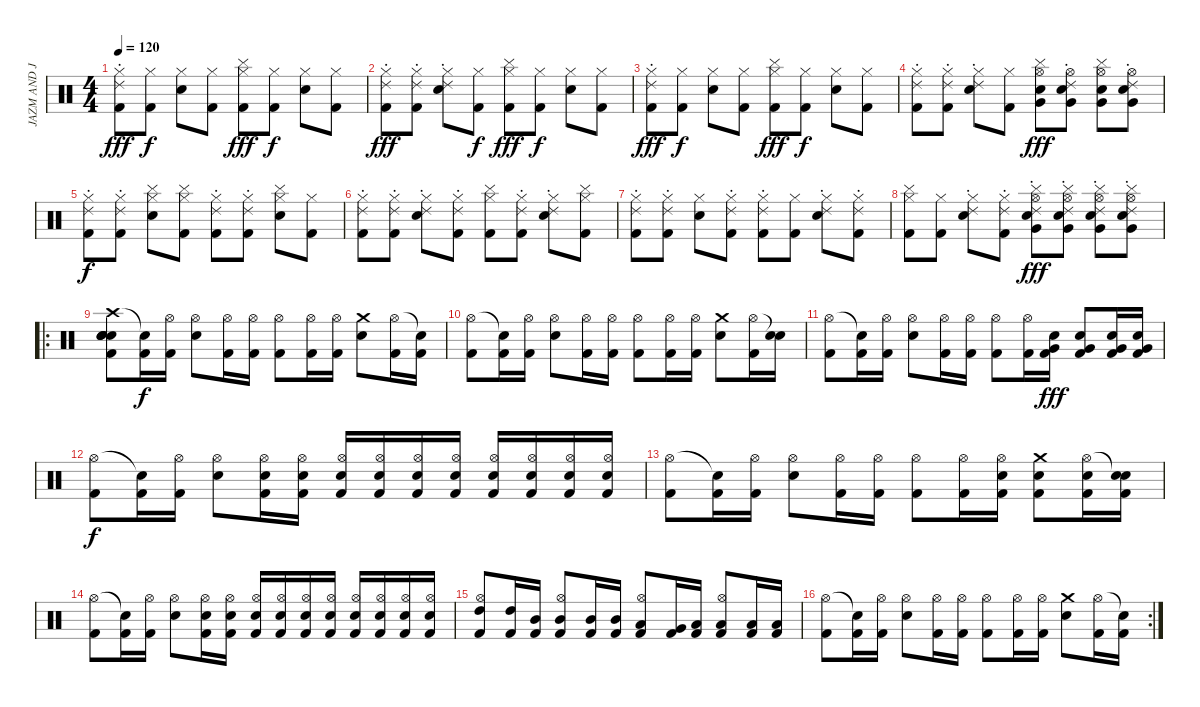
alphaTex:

\track ("JAZM AND JOKER" "JAZM AND J") {instrument percussion}
\staff {score}
\articulation defaults
\ts (4 4)
\tempo 120
\clef neutral
\ks c
("Hi-Hat (closed)" "Ride (choke) 2" "Kick (hit) 2").8{dy fff} ("Hi-Hat (closed)" "Kick (hit) 2").8{dy f} ("Hi-Hat (closed)" "Snare (hit) 2").8 ("Hi-Hat (closed)" "Kick (hit) 2").8 ("Hi-Hat (closed)" "Cymbal (hit)" "Kick (hit) 2").8{dy fff} ("Hi-Hat (closed)" "Kick (hit) 2").8{dy f} ("Hi-Hat (closed)" "Snare (hit) 2").8 ("Hi-Hat (closed)" "Kick (hit) 2").8 |
("Hi-Hat (closed)" "Ride (choke) 2" "Kick (hit) 2").8{dy fff} ("Hi-Hat (closed)" "Ride (choke) 2" "Kick (hit) 2").8 ("Hi-Hat (closed)" "Ride (choke) 2" "Snare (hit) 2").8 ("Hi-Hat (closed)" "Kick (hit) 2").8{dy f} ("Hi-Hat (closed)" "Cymbal (hit)" "Kick (hit) 2").8{dy fff} ("Hi-Hat (closed)" "Kick (hit) 2").8{dy f} ("Hi-Hat (closed)" "Snare (hit) 2").8 ("Hi-Hat (closed)" "Kick (hit) 2").8 |
("Hi-Hat (closed)" "Ride (choke) 2" "Kick (hit) 2").8{dy fff} ("Hi-Hat (closed)" "Kick (hit) 2").8{dy f} ("Hi-Hat (closed)" "Snare (hit) 2").8 ("Hi-Hat (closed)" "Kick (hit) 2").8 ("Hi-Hat (closed)" "Cymbal (hit)" "Kick (hit) 2").8{dy fff} ("Hi-Hat (closed)" "Kick (hit) 2").8{dy f} ("Hi-Hat (closed)" "Snare (hit) 2").8 ("Hi-Hat (closed)" "Kick (hit) 2").8 |
("Hi-Hat (closed)" "Ride (choke) 2" "Kick (hit) 2").8 ("Hi-Hat (closed)" "Ride (choke) 2" "Kick (hit) 2").8 ("Hi-Hat (closed)" "Ride (choke) 2" "Snare (hit) 2").8 ("Hi-Hat (closed)" "Kick (hit) 2").8 ("Hi-Hat (open)" "Cymbal (hit)" "Very Low Tom (hit)" "Snare (hit) 2").8{dy fff} ("Hi-Hat (open)" "Ride (choke) 2" "Very Low Tom (hit)" "Snare (hit) 2").8 ("Hi-Hat (open)" "Cymbal (hit)" "Very Low Tom (hit)" "Snare (hit) 2").8 ("Hi-Hat (open)" "Ride (choke) 2" "Very Low Tom (hit)" "Snare (hit) 2").8 |
("Hi-Hat (closed)" "Ride (choke) 2" "Kick (hit) 2").8{dy f} ("Hi-Hat (closed)" "Ride (choke) 2" "Kick (hit) 2").8 ("Hi-Hat (closed)" "Cymbal (hit)" "Snare (hit) 2").8 ("Hi-Hat (closed)" "Cymbal (hit)" "Kick (hit) 2").8 ("Hi-Hat (closed)" "Ride (choke) 2" "Kick (hit) 2").8 ("Hi-Hat (closed)" "Ride (choke) 2" "Kick (hit) 2").8 ("Hi-Hat (closed)" "Cymbal (hit)" "Snare (hit) 2").8 ("Hi-Hat (closed)" "Kick (hit) 2").8 |
("Hi-Hat (closed)" "Ride (choke) 2" "Kick (hit) 2").8 ("Hi-Hat (closed)" "Ride (choke) 2" "Kick (hit) 2").8 ("Hi-Hat (closed)" "Ride (choke) 2" "Snare (hit) 2").8 ("Hi-Hat (closed)" "Ride (choke) 2" "Kick (hit) 2").8 ("Hi-Hat (closed)" "Cymbal (hit)" "Kick (hit) 2").8 ("Hi-Hat (closed)" "Ride (choke) 2" "Kick (hit) 2").8 ("Hi-Hat (closed)" "Ride (choke) 2" "Snare (hit) 2").8 ("Hi-Hat (closed)" "Cymbal (hit)" "Kick (hit) 2").8 |
("Hi-Hat (closed)" "Ride (choke) 2" "Kick (hit) 2").8 ("Hi-Hat (closed)" "Ride (choke) 2" "Kick (hit) 2").8 ("Hi-Hat (closed)" "Snare (hit) 2").8 ("Hi-Hat (closed)" "Ride (choke) 2" "Kick (hit) 2").8 ("Hi-Hat (closed)" "Ride (choke) 2" "Kick (hit) 2").8 ("Hi-Hat (closed)" "Kick (hit) 2").8 ("Hi-Hat (closed)" "Ride (choke) 2" "Snare (hit) 2").8 ("Hi-Hat (closed)" "Ride (choke) 2" "Kick (hit) 2").8 |
("Hi-Hat (closed)" "Cymbal (hit)" "Kick (hit) 2").8 ("Hi-Hat (closed)" "Kick (hit) 2").8 ("Hi-Hat (closed)" "Ride (choke) 2" "Snare (hit) 2").8 ("Hi-Hat (closed)" "Ride (choke) 2" "Kick (hit) 2").8 ("Hi-Hat (open)" "Cymbal (hit)" "Ride (choke) 2" "Very Low Tom (hit)" "Snare (hit) 2").8{dy fff} ("Hi-Hat (open)" "Cymbal (hit)" "Ride (choke) 2" "Very Low Tom (hit)" "Snare (hit) 2").8 ("Hi-Hat (open)" "Cymbal (hit)" "Ride (choke) 2" "Very Low Tom (hit)" "Snare (hit) 2").8 ("Hi-Hat (open)" "Cymbal (hit)" "Ride (choke) 2" "Very Low Tom (hit)" "Snare (hit) 2").8 |
\ro
("Crash high (hit)" "Electric Snare (hit)" "Electric Snare (hit)" "Electric Snare (hit)" "Electric Snare (hit)" "Kick (hit) 2").8 ("Snare (hit)"{t} "Kick (hit) 2").16{dy f} ("Hi-Hat (open)" "Kick (hit) 2").16 ("Hi-Hat (open)" "Electric Snare (hit)").8 ("Hi-Hat (open)" "Kick (hit) 2").16 ("Hi-Hat (open)" "Kick (hit) 2").16 ("Hi-Hat (open)" "Kick (hit) 2").8 ("Hi-Hat (open)" "Kick (hit) 2").16 ("Hi-Hat (open)" "Kick (hit) 2").16 ("Crash medium (hit)" "Electric Snare (hit)").8 ("Hi-Hat (open)" "Kick (hit) 2").16 ("Snare (hit)"{t} "Kick (hit) 2").16 |
("Hi-Hat (open)" "Kick (hit) 2").8 ("Snare (hit)"{t} "Kick (hit) 2").16 ("Hi-Hat (open)" "Kick (hit) 2").16 ("Hi-Hat (open)" "Electric Snare (hit)").8 ("Hi-Hat (open)" "Kick (hit) 2").16 ("Hi-Hat (open)" "Kick (hit) 2").16 ("Hi-Hat (open)" "Kick (hit) 2").8 ("Hi-Hat (open)" "Kick (hit) 2").16 ("Hi-Hat (open)" "Kick (hit) 2").16 ("Crash medium (hit)" "Electric Snare (hit)").8 ("Hi-Hat (open)" "Kick (hit) 2").16 ("Snare (hit)"{t} "Electric Snare (hit)").16 |
("Hi-Hat (open)" "Kick (hit) 2").8 ("Snare (hit)"{t} "Kick (hit) 2").16 ("Hi-Hat (open)" "Kick (hit) 2").16 ("Hi-Hat (open)" "Electric Snare (hit)").8 ("Hi-Hat (open)" "Kick (hit) 2").16 ("Hi-Hat (open)" "Kick (hit) 2").16 ("Hi-Hat (open)" "Kick (hit) 2").8 ("Hi-Hat (open)" "Kick (hit) 2").16 ("Very Low Tom (hit)" "Kick (hit) 2" "Electric Snare (hit)").16{dy fff} ("Very Low Tom (hit)" "Kick (hit) 2" "Electric Snare (hit)").8 ("Very Low Tom (hit)" "Kick (hit) 2" "Electric Snare (hit)").16 ("Very Low Tom (hit)" "Kick (hit) 2" "Electric Snare (hit)").16 |
("Hi-Hat (open)" "Kick (hit) 2").8{dy f} ("Snare (hit)"{t} "Kick (hit) 2").16 ("Hi-Hat (open)" "Kick (hit) 2").16 ("Hi-Hat (open)" "Electric Snare (hit)").8 ("Hi-Hat (open)" "Kick (hit) 2" "Electric Snare (hit)").16 ("Hi-Hat (open)" "Kick (hit) 2" "Electric Snare (hit)").16 ("Hi-Hat (open)" "Kick (hit) 2" "Electric Snare (hit)").16 ("Hi-Hat (open)" "Kick (hit) 2" "Electric Snare (hit)").16 ("Hi-Hat (open)" "Kick (hit) 2" "Electric Snare (hit)").16 ("Hi-Hat (open)" "Kick (hit) 2" "Electric Snare (hit)").16 ("Hi-Hat (open)" "Kick (hit) 2" "Electric Snare (hit)").16 ("Hi-Hat (open)" "Kick (hit) 2" "Electric Snare (hit)").16 ("Hi-Hat (open)" "Kick (hit) 2" "Electric Snare (hit)").16 ("Hi-Hat (open)" "Kick (hit) 2" "Electric Snare (hit)").16 |
("Hi-Hat (open)" "Kick (hit) 2").8 ("Snare (hit)"{t} "Kick (hit) 2").16 ("Hi-Hat (open)" "Kick (hit) 2").16 ("Hi-Hat (open)" "Electric Snare (hit)").8 ("Hi-Hat (open)" "Kick (hit) 2").16 ("Hi-Hat (open)" "Kick (hit) 2").16 ("Hi-Hat (open)" "Kick (hit) 2").8 ("Hi-Hat (open)" "Kick (hit) 2").16 ("Hi-Hat (open)" "Kick (hit) 2" "Electric Snare (hit)").16 ("Crash medium (hit)" "Kick (hit) 2" "Electric Snare (hit)").8 ("Hi-Hat (open)" "Kick (hit) 2" "Electric Snare (hit)").16 ("Snare (hit)"{t} "Kick (hit) 2" "Electric Snare (hit)").16 |
("Hi-Hat (open)" "Kick (hit) 2").8 ("Snare (hit)"{t} "Kick (hit) 2").16 ("Hi-Hat (open)" "Kick (hit) 2").16 ("Hi-Hat (open)" "Electric Snare (hit)").8 ("Hi-Hat (open)" "Kick (hit) 2" "Electric Snare (hit)").16 ("Hi-Hat (open)" "Kick (hit) 2" "Electric Snare (hit)").16 ("Hi-Hat (open)" "Kick (hit) 2" "Electric Snare (hit)").16 ("Hi-Hat (open)" "Kick (hit) 2" "Electric Snare (hit)").16 ("Hi-Hat (open)" "Kick (hit) 2" "Electric Snare (hit)").16 ("Hi-Hat (open)" "Kick (hit) 2" "Electric Snare (hit)").16 ("Hi-Hat (open)" "Kick (hit) 2" "Electric Snare (hit)").16 ("Hi-Hat (open)" "Kick (hit) 2" "Electric Snare (hit)").16 ("Hi-Hat (open)" "Kick (hit) 2" "Electric Snare (hit)").16 ("Hi-Hat (open)" "Kick (hit) 2" "Electric Snare (hit)").16 |
("High Tom (hit)" "Hi-Hat (open)" "Kick (hit) 2").8 ("High Tom (hit)" "Kick (hit) 2").16 ("Mid Tom (hit)" "Kick (hit) 2").16 ("Mid Tom (hit)" "Hi-Hat (open)" "Kick (hit) 2").8 ("Mid Tom (hit)" "Kick (hit) 2").16 ("Mid Tom (hit)" "Kick (hit) 2").16 ("Low Tom (hit)" "Hi-Hat (open)" "Kick (hit) 2").8 ("Very Low Tom (hit)" "Kick (hit) 2").16 ("Low Floor Tom (hit)" "Kick (hit) 2").16 ("Low Floor Tom (hit)" "Hi-Hat (open)" "Kick (hit) 2").8 ("Low Floor Tom (hit)" "Kick (hit) 2").16 ("Low Floor Tom (hit)" "Kick (hit) 2").16 |
\rc 2
("Hi-Hat (open)" "Kick (hit) 2").8 ("Snare (hit)"{t} "Kick (hit) 2").16 ("Hi-Hat (open)" "Kick (hit) 2").16 ("Hi-Hat (open)" "Electric Snare (hit)").8 ("Hi-Hat (open)" "Kick (hit) 2").16 ("Hi-Hat (open)" "Kick (hit) 2").16 ("Hi-Hat (open)" "Kick (hit) 2").8 ("Hi-Hat (open)" "Kick (hit) 2").16 ("Hi-Hat (open)" "Kick (hit) 2").16 ("Crash medium (hit)" "Electric Snare (hit)").8 ("Hi-Hat (open)" "Kick (hit) 2").16 ("Snare (hit)"{t} "Kick (hit) 2").16
